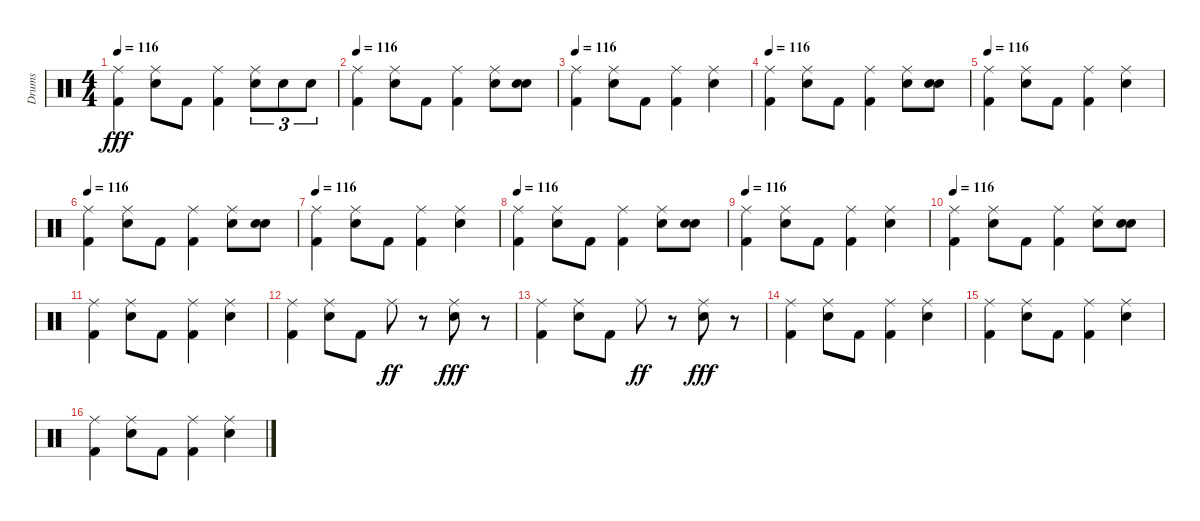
\track ("Drums" "Drums") {instrument percussion}
\staff {score}
\articulation defaults
\ts (4 4)
\tempo 116
\clef neutral
\ks c
("Ride (middle)" "Kick (hit) 2").4{dy fff} ("Ride (middle)" "Snare (hit) 2").8 "Kick (hit) 2".8 ("Ride (middle)" "Kick (hit) 2").4 ("Ride (middle)" "Snare (hit) 2").8{tu (3 2)} "Snare (hit) 2".8{tu (3 2)} "Snare (hit) 2".8{tu (3 2)} |
\tempo 116
("Ride (middle)" "Kick (hit) 2").4 ("Ride (middle)" "Snare (hit) 2").8 "Kick (hit) 2".8 ("Ride (middle)" "Kick (hit) 2").4 ("Ride (middle)" "Snare (hit) 2").8 ("Snare (hit) 2" "Snare (hit) 2").8 |
\tempo 116
("Ride (middle)" "Kick (hit) 2").4 ("Ride (middle)" "Snare (hit) 2").8 "Kick (hit) 2".8 ("Ride (middle)" "Kick (hit) 2").4 ("Ride (middle)" "Snare (hit) 2").4 |
\tempo 116
("Ride (middle)" "Kick (hit) 2").4 ("Ride (middle)" "Snare (hit) 2").8 "Kick (hit) 2".8 ("Ride (middle)" "Kick (hit) 2").4 ("Ride (middle)" "Snare (hit) 2").8 ("Snare (hit) 2" "Snare (hit) 2").8 |
\tempo 116
("Ride (middle)" "Kick (hit) 2").4 ("Ride (middle)" "Snare (hit) 2").8 "Kick (hit) 2".8 ("Ride (middle)" "Kick (hit) 2").4 ("Ride (middle)" "Snare (hit) 2").4 |
\tempo 116
("Ride (middle)" "Kick (hit) 2").4 ("Ride (middle)" "Snare (hit) 2").8 "Kick (hit) 2".8 ("Ride (middle)" "Kick (hit) 2").4 ("Ride (middle)" "Snare (hit) 2").8 ("Snare (hit) 2" "Snare (hit) 2").8 |
\tempo 116
("Ride (middle)" "Kick (hit) 2").4 ("Ride (middle)" "Snare (hit) 2").8 "Kick (hit) 2".8 ("Ride (middle)" "Kick (hit) 2").4 ("Ride (middle)" "Snare (hit) 2").4 |
\tempo 116
("Ride (middle)" "Kick (hit) 2").4 ("Ride (middle)" "Snare (hit) 2").8 "Kick (hit) 2".8 ("Ride (middle)" "Kick (hit) 2").4 ("Ride (middle)" "Snare (hit) 2").8 ("Snare (hit) 2" "Snare (hit) 2").8 |
\tempo 116
("Ride (middle)" "Kick (hit) 2").4 ("Ride (middle)" "Snare (hit) 2").8 "Kick (hit) 2".8 ("Ride (middle)" "Kick (hit) 2").4 ("Ride (middle)" "Snare (hit) 2").4 |
\tempo 116
("Ride (middle)" "Kick (hit) 2").4 ("Ride (middle)" "Snare (hit) 2").8 "Kick (hit) 2".8 ("Ride (middle)" "Kick (hit) 2").4 ("Ride (middle)" "Snare (hit) 2").8 ("Snare (hit) 2" "Snare (hit) 2").8 |
("Ride (middle)" "Kick (hit) 2").4 ("Ride (middle)" "Snare (hit) 2").8 "Kick (hit) 2".8 ("Ride (middle)" "Kick (hit) 2").4 ("Ride (middle)" "Snare (hit) 2").4 |
("Ride (middle)" "Kick (hit) 2").4 ("Ride (middle)" "Snare (hit) 2").8 "Kick (hit) 2".8 "Ride (middle)".8{dy ff} r.8 ("Ride (middle)" "Snare (hit) 2").8{dy fff} r.8 |
("Ride (middle)" "Kick (hit) 2").4 ("Ride (middle)" "Snare (hit) 2").8 "Kick (hit) 2".8 "Ride (middle)".8{dy ff} r.8 ("Ride (middle)" "Snare (hit) 2").8{dy fff} r.8 |
("Ride (middle)" "Kick (hit) 2").4 ("Ride (middle)" "Snare (hit) 2").8 "Kick (hit) 2".8 ("Ride (middle)" "Kick (hit) 2").4 ("Ride (middle)" "Snare (hit) 2").4 |
("Ride (middle)" "Kick (hit) 2").4 ("Ride (middle)" "Snare (hit) 2").8 "Kick (hit) 2".8 ("Ride (middle)" "Kick (hit) 2").4 ("Ride (middle)" "Snare (hit) 2").4 |
("Ride (middle)" "Kick (hit) 2").4 ("Ride (middle)" "Snare (hit) 2").8 "Kick (hit) 2".8 ("Ride (middle)" "Kick (hit) 2").4 ("Ride (middle)" "Snare (hit) 2").4
